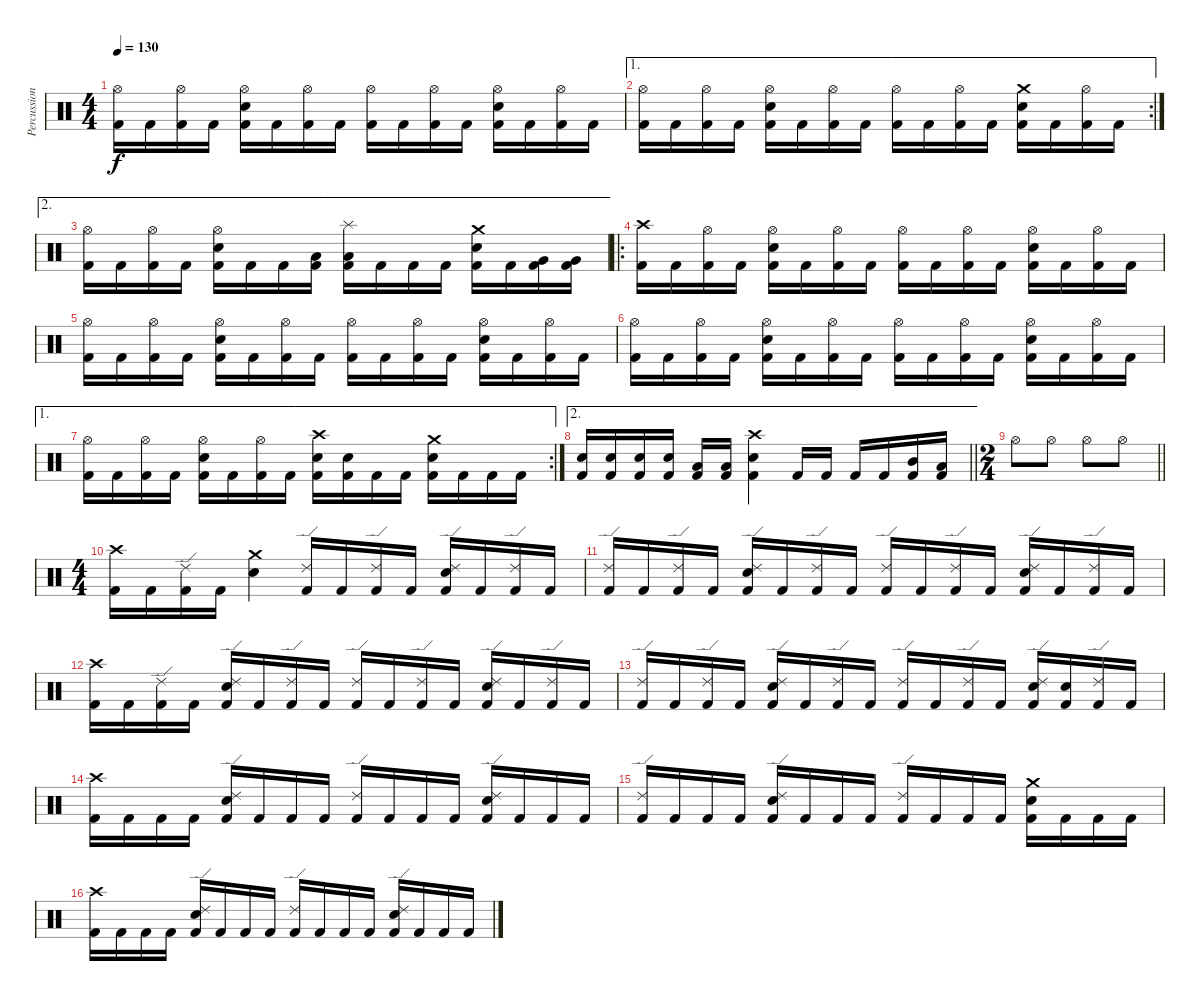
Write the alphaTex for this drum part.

\track ("Percussion" "Percussion") {instrument percussion}
\staff {score}
\articulation defaults
\ts (4 4)
\tempo 130
\clef neutral
\ks c
("Hi-Hat (open)" "Kick (hit) 2").16{dy f} "Kick (hit) 2".16 ("Hi-Hat (open)" "Kick (hit) 2").16 "Kick (hit) 2".16 ("Hi-Hat (open)" "Electric Snare (hit)" "Kick (hit) 2").16 "Kick (hit) 2".16 ("Hi-Hat (open)" "Kick (hit) 2").16 "Kick (hit) 2".16 ("Hi-Hat (open)" "Kick (hit) 2").16 "Kick (hit) 2".16 ("Hi-Hat (open)" "Kick (hit) 2").16 "Kick (hit) 2".16 ("Hi-Hat (open)" "Electric Snare (hit)" "Kick (hit) 2").16 "Kick (hit) 2".16 ("Hi-Hat (open)" "Kick (hit) 2").16 "Kick (hit) 2".16 |
\ae 1
\rc 2
("Hi-Hat (open)" "Kick (hit) 2").16 "Kick (hit) 2".16 ("Hi-Hat (open)" "Kick (hit) 2").16 "Kick (hit) 2".16 ("Hi-Hat (open)" "Electric Snare (hit)" "Kick (hit) 2").16 "Kick (hit) 2".16 ("Hi-Hat (open)" "Kick (hit) 2").16 "Kick (hit) 2".16 ("Hi-Hat (open)" "Kick (hit) 2").16 "Kick (hit) 2".16 ("Hi-Hat (open)" "Kick (hit) 2").16 "Kick (hit) 2".16 ("Crash medium (hit)" "Electric Snare (hit)" "Kick (hit) 2").16 "Kick (hit) 2".16 ("Hi-Hat (open)" "Kick (hit) 2").16 "Kick (hit) 2".16 |
\ae 2
("Hi-Hat (open)" "Kick (hit) 2").16 "Kick (hit) 2".16 ("Hi-Hat (open)" "Kick (hit) 2").16 "Kick (hit) 2".16 ("Hi-Hat (open)" "Electric Snare (hit)" "Kick (hit) 2").16 "Kick (hit) 2".16 "Kick (hit) 2".16 ("Low Tom (hit)" "Kick (hit) 2").16 ("Splash (hit)" "Low Tom (hit)" "Kick (hit) 2").16 "Kick (hit) 2".16 "Kick (hit) 2".16 "Kick (hit) 2".16 ("Crash medium (hit)" "Electric Snare (hit)" "Kick (hit) 2").16 "Kick (hit) 2".16 ("Very Low Tom (hit)" "Kick (hit) 2").16 ("Very Low Tom (hit)" "Kick (hit) 2").16 |
\ro
("Crash high (hit)" "Kick (hit) 2").16 "Kick (hit) 2".16 ("Hi-Hat (open)" "Kick (hit) 2").16 "Kick (hit) 2".16 ("Hi-Hat (open)" "Electric Snare (hit)" "Kick (hit) 2").16 "Kick (hit) 2".16 ("Hi-Hat (open)" "Kick (hit) 2").16 "Kick (hit) 2".16 ("Hi-Hat (open)" "Kick (hit) 2").16 "Kick (hit) 2".16 ("Hi-Hat (open)" "Kick (hit) 2").16 "Kick (hit) 2".16 ("Hi-Hat (open)" "Electric Snare (hit)" "Kick (hit) 2").16 "Kick (hit) 2".16 ("Hi-Hat (open)" "Kick (hit) 2").16 "Kick (hit) 2".16 |
("Hi-Hat (open)" "Kick (hit) 2").16 "Kick (hit) 2".16 ("Hi-Hat (open)" "Kick (hit) 2").16 "Kick (hit) 2".16 ("Hi-Hat (open)" "Electric Snare (hit)" "Kick (hit) 2").16 "Kick (hit) 2".16 ("Hi-Hat (open)" "Kick (hit) 2").16 "Kick (hit) 2".16 ("Hi-Hat (open)" "Kick (hit) 2").16 "Kick (hit) 2".16 ("Hi-Hat (open)" "Kick (hit) 2").16 "Kick (hit) 2".16 ("Hi-Hat (open)" "Electric Snare (hit)" "Kick (hit) 2").16 "Kick (hit) 2".16 ("Hi-Hat (open)" "Kick (hit) 2").16 "Kick (hit) 2".16 |
("Hi-Hat (open)" "Kick (hit) 2").16 "Kick (hit) 2".16 ("Hi-Hat (open)" "Kick (hit) 2").16 "Kick (hit) 2".16 ("Hi-Hat (open)" "Electric Snare (hit)" "Kick (hit) 2").16 "Kick (hit) 2".16 ("Hi-Hat (open)" "Kick (hit) 2").16 "Kick (hit) 2".16 ("Hi-Hat (open)" "Kick (hit) 2").16 "Kick (hit) 2".16 ("Hi-Hat (open)" "Kick (hit) 2").16 "Kick (hit) 2".16 ("Hi-Hat (open)" "Electric Snare (hit)" "Kick (hit) 2").16 "Kick (hit) 2".16 ("Hi-Hat (open)" "Kick (hit) 2").16 "Kick (hit) 2".16 |
\ae 1
\rc 2
("Hi-Hat (open)" "Kick (hit) 2").16 "Kick (hit) 2".16 ("Hi-Hat (open)" "Kick (hit) 2").16 "Kick (hit) 2".16 ("Hi-Hat (open)" "Electric Snare (hit)" "Kick (hit) 2").16 "Kick (hit) 2".16 ("Hi-Hat (open)" "Kick (hit) 2").16 "Kick (hit) 2".16 ("Crash high (hit)" "Electric Snare (hit)" "Kick (hit) 2").16 ("Electric Snare (hit)" "Kick (hit) 2").16 "Kick (hit) 2".16 "Kick (hit) 2".16 ("Crash medium (hit)" "Electric Snare (hit)" "Kick (hit) 2").16 "Kick (hit) 2".16 "Kick (hit) 2".16 "Kick (hit) 2".16 |
\ae 2
\barLineRight lightlight
("Electric Snare (hit)" "Kick (hit) 2").16 ("Electric Snare (hit)" "Kick (hit) 2").16 ("Electric Snare (hit)" "Kick (hit) 2").16 ("Electric Snare (hit)" "Kick (hit) 2").16 ("Low Tom (hit)" "Kick (hit) 2").16 ("Low Tom (hit)" "Kick (hit) 2").16 ("Crash high (hit)" "Electric Snare (hit)" "Kick (hit) 2").4 "Kick (hit) 2".16 "Kick (hit) 2".16 "Kick (hit) 2".16 "Kick (hit) 2".16 ("Mid Tom (hit)" "Kick (hit) 2").16 ("Low Tom (hit)" "Kick (hit) 2").16 |
\ts (2 4)
\barLineRight lightlight "Hi-Hat (open)".8 "Hi-Hat (open)".8 "Hi-Hat (open)".8 "Hi-Hat (open)".8
|
\ts (4 4)
("Crash high (hit)" "Kick (hit) 2").16 "Kick (hit) 2".16 ("Ride (edge) 2" "Kick (hit) 2").16 "Kick (hit) 2".16 ("Crash medium (hit)" "Electric Snare (hit)").4 ("Ride (edge) 2" "Kick (hit) 2").16 "Kick (hit) 2".16 ("Ride (edge) 2" "Kick (hit) 2").16 "Kick (hit) 2".16 ("Ride (edge) 2" "Electric Snare (hit)" "Kick (hit) 2").16 "Kick (hit) 2".16 ("Ride (edge) 2" "Kick (hit) 2").16 "Kick (hit) 2".16 |
("Ride (edge) 2" "Kick (hit) 2").16 "Kick (hit) 2".16 ("Ride (edge) 2" "Kick (hit) 2").16 "Kick (hit) 2".16 ("Ride (edge) 2" "Electric Snare (hit)" "Kick (hit) 2").16 "Kick (hit) 2".16 ("Ride (edge) 2" "Kick (hit) 2").16 "Kick (hit) 2".16 ("Ride (edge) 2" "Kick (hit) 2").16 "Kick (hit) 2".16 ("Ride (edge) 2" "Kick (hit) 2").16 "Kick (hit) 2".16 ("Ride (edge) 2" "Electric Snare (hit)" "Kick (hit) 2").16 "Kick (hit) 2".16 ("Ride (edge) 2" "Kick (hit) 2").16 "Kick (hit) 2".16 |
("Crash high (hit)" "Kick (hit) 2").16 "Kick (hit) 2".16 ("Ride (edge) 2" "Kick (hit) 2").16 "Kick (hit) 2".16 ("Ride (edge) 2" "Electric Snare (hit)" "Kick (hit) 2").16 "Kick (hit) 2".16 ("Ride (edge) 2" "Kick (hit) 2").16 "Kick (hit) 2".16 ("Ride (edge) 2" "Kick (hit) 2").16 "Kick (hit) 2".16 ("Ride (edge) 2" "Kick (hit) 2").16 "Kick (hit) 2".16 ("Ride (edge) 2" "Electric Snare (hit)" "Kick (hit) 2").16 "Kick (hit) 2".16 ("Ride (edge) 2" "Kick (hit) 2").16 "Kick (hit) 2".16 |
("Ride (edge) 2" "Kick (hit) 2").16 "Kick (hit) 2".16 ("Ride (edge) 2" "Kick (hit) 2").16 "Kick (hit) 2".16 ("Ride (edge) 2" "Electric Snare (hit)" "Kick (hit) 2").16 "Kick (hit) 2".16 ("Ride (edge) 2" "Kick (hit) 2").16 "Kick (hit) 2".16 ("Ride (edge) 2" "Kick (hit) 2").16 "Kick (hit) 2".16 ("Ride (edge) 2" "Kick (hit) 2").16 "Kick (hit) 2".16 ("Ride (edge) 2" "Electric Snare (hit)" "Kick (hit) 2").16 ("Electric Snare (hit)" "Kick (hit) 2").16 ("Ride (edge) 2" "Kick (hit) 2").16 "Kick (hit) 2".16 |
("Crash high (hit)" "Kick (hit) 2").16 "Kick (hit) 2".16 "Kick (hit) 2".16 "Kick (hit) 2".16 ("Ride (edge) 2" "Electric Snare (hit)" "Kick (hit) 2").16 "Kick (hit) 2".16 "Kick (hit) 2".16 "Kick (hit) 2".16 ("Ride (edge) 2" "Kick (hit) 2").16 "Kick (hit) 2".16 "Kick (hit) 2".16 "Kick (hit) 2".16 ("Ride (edge) 2" "Electric Snare (hit)" "Kick (hit) 2").16 "Kick (hit) 2".16 "Kick (hit) 2".16 "Kick (hit) 2".16 |
("Ride (edge) 2" "Kick (hit) 2").16 "Kick (hit) 2".16 "Kick (hit) 2".16 "Kick (hit) 2".16 ("Ride (edge) 2" "Electric Snare (hit)" "Kick (hit) 2").16 "Kick (hit) 2".16 "Kick (hit) 2".16 "Kick (hit) 2".16 ("Ride (edge) 2" "Kick (hit) 2").16 "Kick (hit) 2".16 "Kick (hit) 2".16 "Kick (hit) 2".16 ("Crash medium (hit)" "Electric Snare (hit)" "Kick (hit) 2").16 "Kick (hit) 2".16 "Kick (hit) 2".16 "Kick (hit) 2".16 |
("Crash high (hit)" "Kick (hit) 2").16 "Kick (hit) 2".16 "Kick (hit) 2".16 "Kick (hit) 2".16 ("Ride (edge) 2" "Electric Snare (hit)" "Kick (hit) 2").16 "Kick (hit) 2".16 "Kick (hit) 2".16 "Kick (hit) 2".16 ("Ride (edge) 2" "Kick (hit) 2").16 "Kick (hit) 2".16 "Kick (hit) 2".16 "Kick (hit) 2".16 ("Ride (edge) 2" "Electric Snare (hit)" "Kick (hit) 2").16 "Kick (hit) 2".16 "Kick (hit) 2".16 "Kick (hit) 2".16
